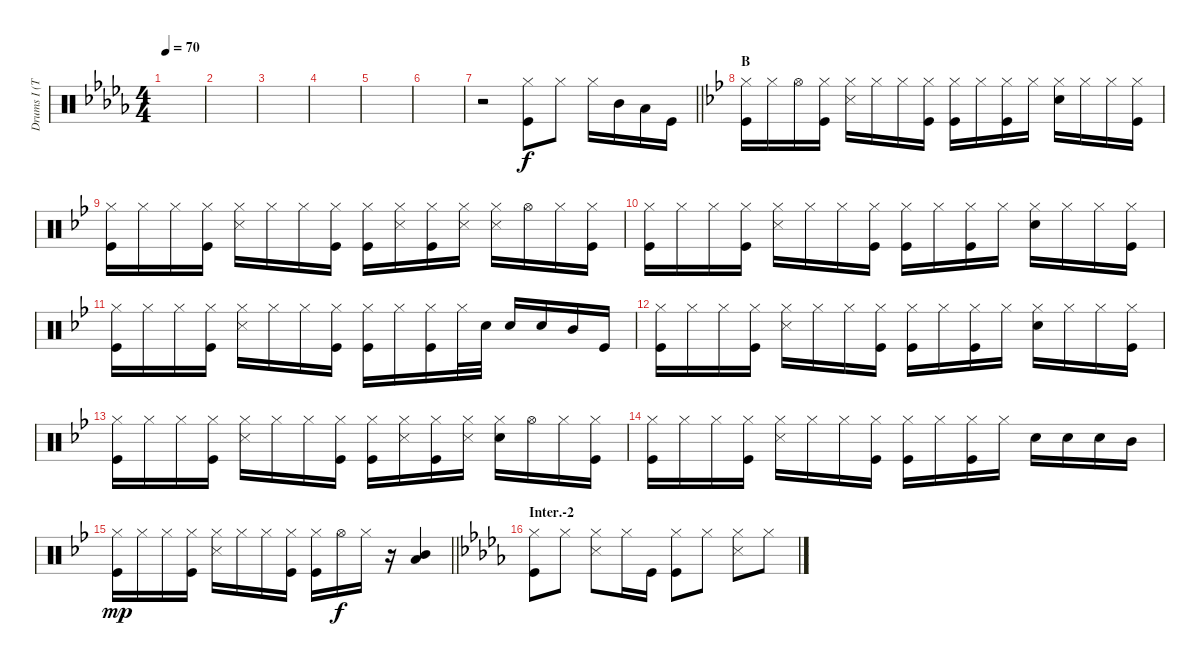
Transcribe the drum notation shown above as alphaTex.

\track ("Drums I (Tainaka Ritsu)" "Drums I (T") {instrument percussion}
\staff {score}
\articulation defaults
\ts (4 4)
\tempo 70
\clef neutral
\ks db
|
|
|
|
|
|
\barLineRight lightlight
r.2 ("Hi-Hat (closed)" "Kick (hit)").8 "Hi-Hat (closed)".8 "Hi-Hat (closed)".16 "Mid Tom (hit)".16 "Low Tom (hit)".16 "Kick (hit)".16 |
\section ("" "B")
\ks bb
("Hi-Hat (closed)" "Kick (hit)").16 "Hi-Hat (closed)".16 "Hi-Hat (open)".16 ("Hi-Hat (closed)" "Kick (hit)").16 ("Hi-Hat (closed)" "Snare (side stick) 3").16 "Hi-Hat (closed)".16 "Hi-Hat (closed)".16 ("Hi-Hat (closed)" "Kick (hit)").16 ("Hi-Hat (closed)" "Kick (hit)").16 "Hi-Hat (closed)".16 ("Hi-Hat (closed)" "Kick (hit)").16 "Hi-Hat (closed)".16 ("Hi-Hat (closed)" "Snare (hit) 2").16 "Hi-Hat (closed)".16 "Hi-Hat (closed)".16 ("Hi-Hat (closed)" "Kick (hit)").16 |
("Hi-Hat (closed)" "Kick (hit)").16 "Hi-Hat (closed)".16 "Hi-Hat (closed)".16 ("Hi-Hat (closed)" "Kick (hit)").16 ("Hi-Hat (closed)" "Snare (side stick) 3").16 "Hi-Hat (closed)".16 "Hi-Hat (closed)".16 ("Hi-Hat (closed)" "Kick (hit)").16 ("Hi-Hat (closed)" "Kick (hit)").16 ("Hi-Hat (closed)" "Snare (side stick) 3").16 ("Hi-Hat (closed)" "Kick (hit)").16 ("Hi-Hat (closed)" "Snare (side stick) 3").16 ("Hi-Hat (closed)" "Snare (side stick) 3").16 "Hi-Hat (open)".16 "Hi-Hat (closed)".16 ("Hi-Hat (closed)" "Kick (hit)").16 |
("Hi-Hat (closed)" "Kick (hit)").16 "Hi-Hat (closed)".16 "Hi-Hat (closed)".16 ("Hi-Hat (closed)" "Kick (hit)").16 ("Hi-Hat (closed)" "Snare (side stick) 3").16 "Hi-Hat (closed)".16 "Hi-Hat (closed)".16 ("Hi-Hat (closed)" "Kick (hit)").16 ("Hi-Hat (closed)" "Kick (hit)").16 "Hi-Hat (closed)".16 ("Hi-Hat (closed)" "Kick (hit)").16 "Hi-Hat (closed)".16 ("Hi-Hat (closed)" "Snare (hit) 2").16 "Hi-Hat (closed)".16 "Hi-Hat (closed)".16 ("Hi-Hat (closed)" "Kick (hit)").16 |
("Hi-Hat (closed)" "Kick (hit)").16 "Hi-Hat (closed)".16 "Hi-Hat (closed)".16 ("Hi-Hat (closed)" "Kick (hit)").16 ("Hi-Hat (closed)" "Snare (side stick) 3").16 "Hi-Hat (closed)".16 "Hi-Hat (closed)".16 ("Hi-Hat (closed)" "Kick (hit)").16 ("Hi-Hat (closed)" "Kick (hit)").16 "Hi-Hat (closed)".16 ("Hi-Hat (closed)" "Kick (hit)").16 "Hi-Hat (closed)".32 "Snare (hit) 2".32 "Snare (hit) 2".16 "Snare (hit) 2".16 "Mid Tom (hit)".16 "Kick (hit)".16 |
("Hi-Hat (closed)" "Kick (hit)").16 "Hi-Hat (closed)".16 "Hi-Hat (closed)".16 ("Hi-Hat (closed)" "Kick (hit)").16 ("Hi-Hat (closed)" "Snare (side stick) 3").16 "Hi-Hat (closed)".16 "Hi-Hat (closed)".16 ("Hi-Hat (closed)" "Kick (hit)").16 ("Hi-Hat (closed)" "Kick (hit)").16 "Hi-Hat (closed)".16 ("Hi-Hat (closed)" "Kick (hit)").16 "Hi-Hat (closed)".16 ("Hi-Hat (closed)" "Snare (hit) 2").16 "Hi-Hat (closed)".16 "Hi-Hat (closed)".16 ("Hi-Hat (closed)" "Kick (hit)").16 |
("Hi-Hat (closed)" "Kick (hit)").16 "Hi-Hat (closed)".16 "Hi-Hat (closed)".16 ("Hi-Hat (closed)" "Kick (hit)").16 ("Hi-Hat (closed)" "Snare (side stick) 3").16 "Hi-Hat (closed)".16 "Hi-Hat (closed)".16 ("Hi-Hat (closed)" "Kick (hit)").16 ("Hi-Hat (closed)" "Kick (hit)").16 ("Hi-Hat (closed)" "Snare (side stick) 3").16 ("Hi-Hat (closed)" "Kick (hit)").16 ("Hi-Hat (closed)" "Snare (side stick) 3").16 ("Hi-Hat (closed)" "Snare (hit) 2").16 "Hi-Hat (open)".16 "Hi-Hat (closed)".16 ("Hi-Hat (closed)" "Kick (hit)").16 |
("Hi-Hat (closed)" "Kick (hit)").16 "Hi-Hat (closed)".16 "Hi-Hat (closed)".16 ("Hi-Hat (closed)" "Kick (hit)").16 ("Hi-Hat (closed)" "Snare (side stick) 3").16 "Hi-Hat (closed)".16 "Hi-Hat (closed)".16 ("Hi-Hat (closed)" "Kick (hit)").16 ("Hi-Hat (closed)" "Kick (hit)").16 "Hi-Hat (closed)".16 ("Hi-Hat (closed)" "Kick (hit)").16 "Hi-Hat (closed)".16 "Snare (hit) 2".16{dy f} "Snare (hit) 2".16 "Snare (hit) 2".16 "Mid Tom (hit)".16 |
\barLineRight lightlight
("Hi-Hat (closed)" "Kick (hit)").16{dy mp} "Hi-Hat (closed)".16 "Hi-Hat (closed)".16 ("Hi-Hat (closed)" "Kick (hit)").16 ("Hi-Hat (closed)" "Snare (side stick) 3").16 "Hi-Hat (closed)".16 "Hi-Hat (closed)".16 ("Hi-Hat (closed)" "Kick (hit)").16 ("Hi-Hat (closed)" "Kick (hit)").16 "Hi-Hat (open)".16{dy f} "Hi-Hat (closed)".16 r.16 ("Mid Tom (hit)" "Low Floor Tom (hit)").4 |
\section ("" "Inter.-2")
\ks db
("Hi-Hat (closed)" "Kick (hit)").8 "Hi-Hat (closed)".8 ("Hi-Hat (closed)" "Snare (side stick) 3").8 "Hi-Hat (closed)".16 "Kick (hit)".16 ("Hi-Hat (closed)" "Kick (hit)").8 "Hi-Hat (closed)".8 ("Hi-Hat (closed)" "Snare (side stick) 3").8 "Hi-Hat (closed)".8
